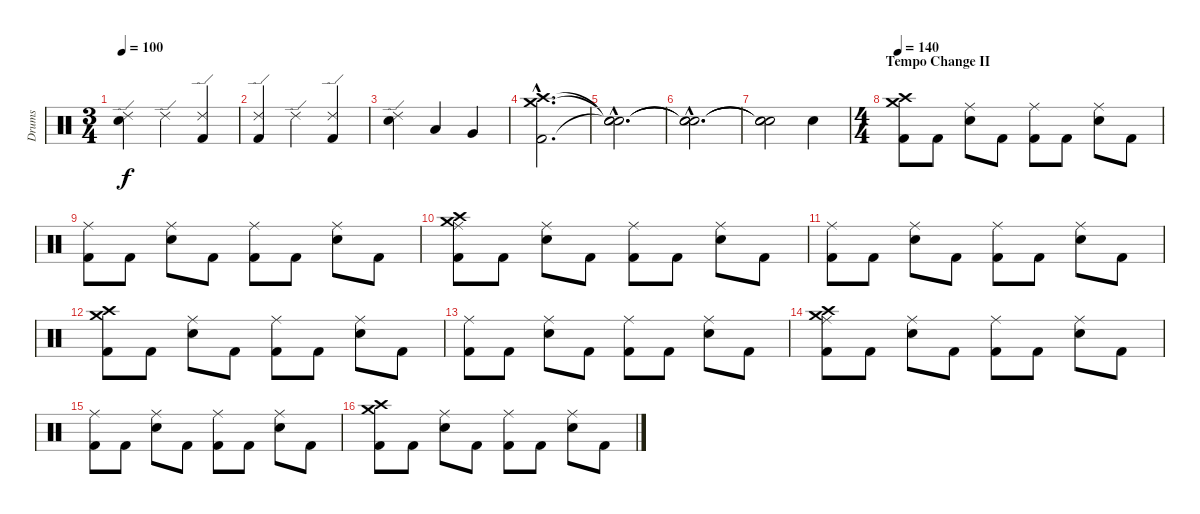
\track ("Drums" "Drums") {instrument percussion}
\staff {score}
\articulation defaults
\ts (3 4)
\tempo 100
\clef neutral
\ks c
("Ride (edge) 2" "Electric Snare (hit)").4{dy f} "Ride (edge) 2".4 ("Ride (edge) 2" "Kick (hit) 2").4 |
("Ride (edge) 2" "Kick (hit) 2").4 "Ride (edge) 2".4 ("Ride (edge) 2" "Kick (hit) 2").4 |
("Ride (edge) 2" "Electric Snare (hit)").4 "Low Tom (hit)".4 "Very Low Tom (hit)".4 |
("Crash high (hit)"{hac} "Crash medium (hit)"{hac} "Kick (hit) 2"{hac}).2{d} |
("Snare (hit)"{hac t} "Snare (hit)"{hac t} "Snare (hit)"{hac t}).2{d} |
("Snare (hit)"{hac t} "Snare (hit)"{hac t} "Snare (hit)"{hac t}).2{d} |
("Snare (hit)"{t} "Snare (hit)"{t} "Snare (hit)"{t}).2 "Electric Snare (hit)".4 |
\ts (4 4)
\section ("" "Tempo Change II")
\tempo 140
("Crash medium (hit)" "Crash high (hit)" "Kick (hit) 2").8{volume 13} "Kick (hit) 2".8 ("Ride (middle)" "Electric Snare (hit)").8 "Kick (hit) 2".8 ("Ride (middle)" "Kick (hit) 2").8 "Kick (hit) 2".8 ("Ride (middle)" "Electric Snare (hit)").8 "Kick (hit) 2".8 |
("Ride (middle)" "Kick (hit) 2").8 "Kick (hit) 2".8 ("Ride (middle)" "Electric Snare (hit)").8 "Kick (hit) 2".8 ("Ride (middle)" "Kick (hit) 2").8 "Kick (hit) 2".8 ("Ride (middle)" "Electric Snare (hit)").8 "Kick (hit) 2".8 |
("Ride (middle)" "Crash high (hit)" "Crash medium (hit)" "Kick (hit) 2").8 "Kick (hit) 2".8 ("Ride (middle)" "Electric Snare (hit)").8 "Kick (hit) 2".8 ("Ride (middle)" "Kick (hit) 2").8 "Kick (hit) 2".8 ("Ride (middle)" "Electric Snare (hit)").8 "Kick (hit) 2".8 |
("Ride (middle)" "Kick (hit) 2").8 "Kick (hit) 2".8 ("Ride (middle)" "Electric Snare (hit)").8 "Kick (hit) 2".8 ("Ride (middle)" "Kick (hit) 2").8 "Kick (hit) 2".8 ("Ride (middle)" "Electric Snare (hit)").8 "Kick (hit) 2".8 |
("Crash medium (hit)" "Crash high (hit)" "Kick (hit) 2").8 "Kick (hit) 2".8 ("Ride (middle)" "Electric Snare (hit)").8 "Kick (hit) 2".8 ("Ride (middle)" "Kick (hit) 2").8 "Kick (hit) 2".8 ("Ride (middle)" "Electric Snare (hit)").8 "Kick (hit) 2".8 |
("Ride (middle)" "Kick (hit) 2").8 "Kick (hit) 2".8 ("Ride (middle)" "Electric Snare (hit)").8 "Kick (hit) 2".8 ("Ride (middle)" "Kick (hit) 2").8 "Kick (hit) 2".8 ("Ride (middle)" "Electric Snare (hit)").8 "Kick (hit) 2".8 |
("Ride (middle)" "Crash high (hit)" "Crash medium (hit)" "Kick (hit) 2").8 "Kick (hit) 2".8 ("Ride (middle)" "Electric Snare (hit)").8 "Kick (hit) 2".8 ("Ride (middle)" "Kick (hit) 2").8 "Kick (hit) 2".8 ("Ride (middle)" "Electric Snare (hit)").8 "Kick (hit) 2".8 |
("Ride (middle)" "Kick (hit) 2").8 "Kick (hit) 2".8 ("Ride (middle)" "Electric Snare (hit)").8 "Kick (hit) 2".8 ("Ride (middle)" "Kick (hit) 2").8 "Kick (hit) 2".8 ("Ride (middle)" "Electric Snare (hit)").8 "Kick (hit) 2".8 |
("Crash medium (hit)" "Crash high (hit)" "Kick (hit) 2").8 "Kick (hit) 2".8 ("Ride (middle)" "Electric Snare (hit)").8 "Kick (hit) 2".8 ("Ride (middle)" "Kick (hit) 2").8 "Kick (hit) 2".8 ("Ride (middle)" "Electric Snare (hit)").8 "Kick (hit) 2".8
